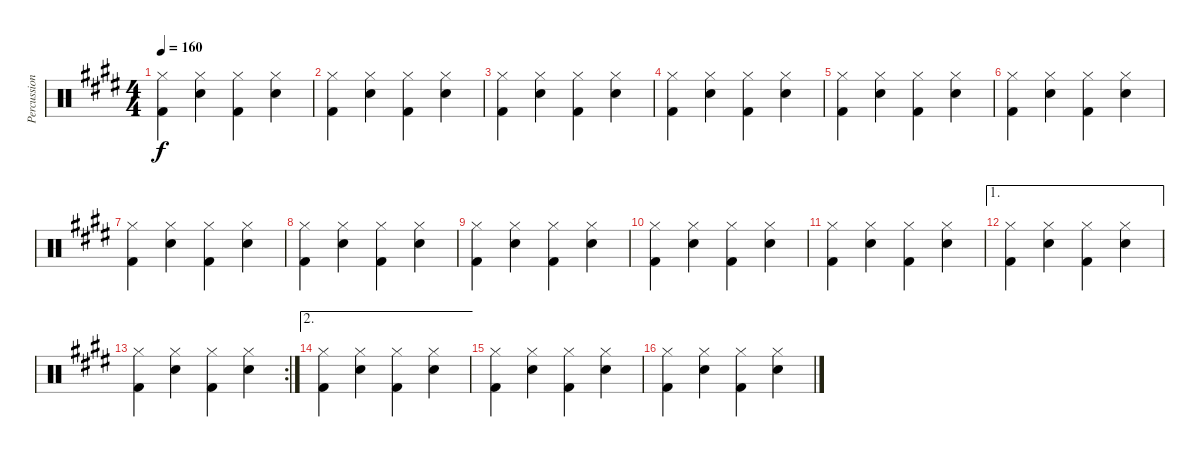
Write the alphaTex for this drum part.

\track ("Percussion" "Percussion") {instrument percussion}
\staff {score}
\articulation defaults
\ts (4 4)
\tempo 160
\clef neutral
\ks e
("Hi-Hat (closed)" "Kick (hit) 2").4{dy f} ("Hi-Hat (closed)" "Snare (hit) 2").4 ("Hi-Hat (closed)" "Kick (hit) 2").4 ("Hi-Hat (closed)" "Snare (hit) 2").4 |
("Hi-Hat (closed)" "Kick (hit) 2").4 ("Hi-Hat (closed)" "Snare (hit) 2").4 ("Hi-Hat (closed)" "Kick (hit) 2").4 ("Hi-Hat (closed)" "Snare (hit) 2").4 |
("Hi-Hat (closed)" "Kick (hit) 2").4 ("Hi-Hat (closed)" "Snare (hit) 2").4 ("Hi-Hat (closed)" "Kick (hit) 2").4 ("Hi-Hat (closed)" "Snare (hit) 2").4 |
("Hi-Hat (closed)" "Kick (hit) 2").4 ("Hi-Hat (closed)" "Snare (hit) 2").4 ("Hi-Hat (closed)" "Kick (hit) 2").4 ("Hi-Hat (closed)" "Snare (hit) 2").4 |
("Hi-Hat (closed)" "Kick (hit) 2").4 ("Hi-Hat (closed)" "Snare (hit) 2").4 ("Hi-Hat (closed)" "Kick (hit) 2").4 ("Hi-Hat (closed)" "Snare (hit) 2").4 |
("Hi-Hat (closed)" "Kick (hit) 2").4 ("Hi-Hat (closed)" "Snare (hit) 2").4 ("Hi-Hat (closed)" "Kick (hit) 2").4 ("Hi-Hat (closed)" "Snare (hit) 2").4 |
("Hi-Hat (closed)" "Kick (hit) 2").4 ("Hi-Hat (closed)" "Snare (hit) 2").4 ("Hi-Hat (closed)" "Kick (hit) 2").4 ("Hi-Hat (closed)" "Snare (hit) 2").4 |
("Hi-Hat (closed)" "Kick (hit) 2").4 ("Hi-Hat (closed)" "Snare (hit) 2").4 ("Hi-Hat (closed)" "Kick (hit) 2").4 ("Hi-Hat (closed)" "Snare (hit) 2").4 |
("Hi-Hat (closed)" "Kick (hit) 2").4 ("Hi-Hat (closed)" "Snare (hit) 2").4 ("Hi-Hat (closed)" "Kick (hit) 2").4 ("Hi-Hat (closed)" "Snare (hit) 2").4 |
("Hi-Hat (closed)" "Kick (hit) 2").4 ("Hi-Hat (closed)" "Snare (hit) 2").4 ("Hi-Hat (closed)" "Kick (hit) 2").4 ("Hi-Hat (closed)" "Snare (hit) 2").4 |
("Hi-Hat (closed)" "Kick (hit) 2").4 ("Hi-Hat (closed)" "Snare (hit) 2").4 ("Hi-Hat (closed)" "Kick (hit) 2").4 ("Hi-Hat (closed)" "Snare (hit) 2").4 |
\ae 1
("Hi-Hat (closed)" "Kick (hit) 2").4 ("Hi-Hat (closed)" "Snare (hit) 2").4 ("Hi-Hat (closed)" "Kick (hit) 2").4 ("Hi-Hat (closed)" "Snare (hit) 2").4 |
\rc 2
("Hi-Hat (closed)" "Kick (hit) 2").4 ("Hi-Hat (closed)" "Snare (hit) 2").4 ("Hi-Hat (closed)" "Kick (hit) 2").4 ("Hi-Hat (closed)" "Snare (hit) 2").4 |
\ae 2
("Hi-Hat (closed)" "Kick (hit) 2").4 ("Hi-Hat (closed)" "Snare (hit) 2").4 ("Hi-Hat (closed)" "Kick (hit) 2").4 ("Hi-Hat (closed)" "Snare (hit) 2").4 |
("Hi-Hat (closed)" "Kick (hit) 2").4 ("Hi-Hat (closed)" "Snare (hit) 2").4 ("Hi-Hat (closed)" "Kick (hit) 2").4 ("Hi-Hat (closed)" "Snare (hit) 2").4 |
("Hi-Hat (closed)" "Kick (hit) 2").4 ("Hi-Hat (closed)" "Snare (hit) 2").4 ("Hi-Hat (closed)" "Kick (hit) 2").4 ("Hi-Hat (closed)" "Snare (hit) 2").4
